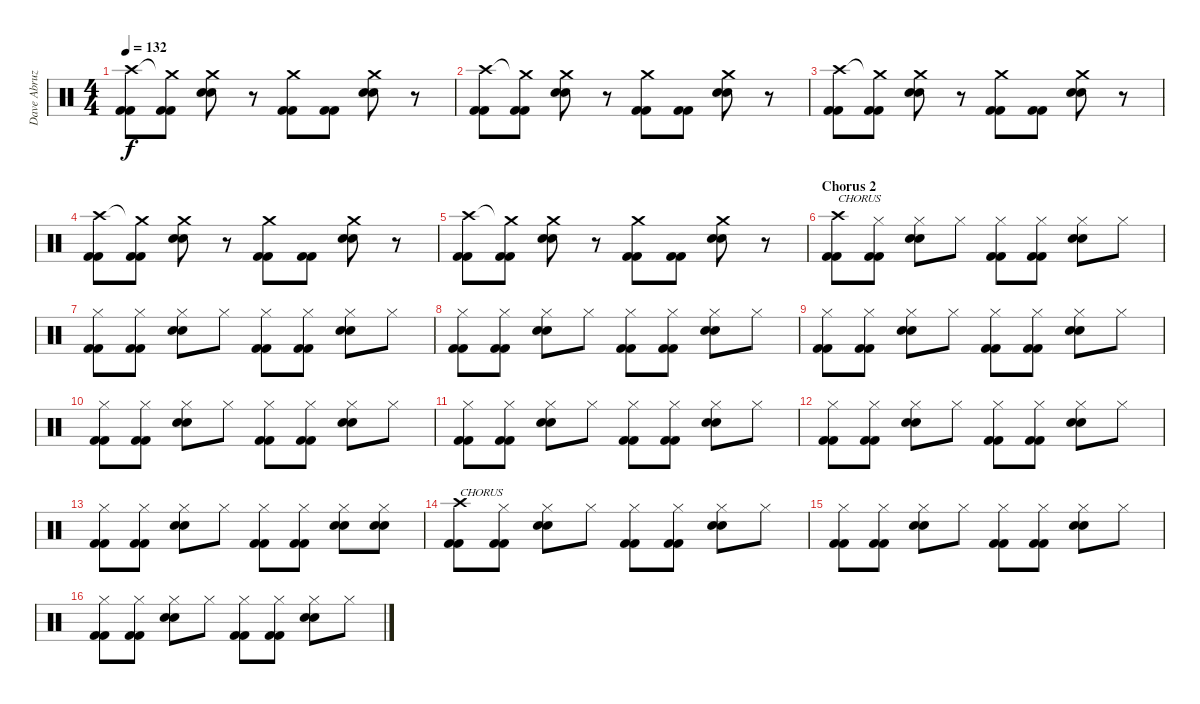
\track ("Dave Abruzzesse" "Dave Abruz") {instrument percussion}
\staff {score}
\articulation defaults
\ts (4 4)
\tempo 132
\clef neutral
\ks c
("Crash high (hit)" "Kick (hit) 2" "Kick (hit) 2").8{dy f} ("Crash medium (hit)"{t} "Kick (hit) 2" "Kick (hit) 2").8 ("Crash medium (hit)" "Snare (hit) 2" "Snare (hit) 2").8 r.8 ("Crash medium (hit)" "Kick (hit) 2" "Kick (hit) 2").8 ("Kick (hit) 2" "Kick (hit) 2").8 ("Crash medium (hit)" "Snare (hit) 2" "Snare (hit) 2").8 r.8 |
("Crash high (hit)" "Kick (hit) 2" "Kick (hit) 2").8 ("Crash medium (hit)"{t} "Kick (hit) 2" "Kick (hit) 2").8 ("Crash medium (hit)" "Snare (hit) 2" "Snare (hit) 2").8 r.8 ("Crash medium (hit)" "Kick (hit) 2" "Kick (hit) 2").8 ("Kick (hit) 2" "Kick (hit) 2").8 ("Crash medium (hit)" "Snare (hit) 2" "Snare (hit) 2").8 r.8 |
("Crash high (hit)" "Kick (hit) 2" "Kick (hit) 2").8 ("Crash medium (hit)"{t} "Kick (hit) 2" "Kick (hit) 2").8 ("Crash medium (hit)" "Snare (hit) 2" "Snare (hit) 2").8 r.8 ("Crash medium (hit)" "Kick (hit) 2" "Kick (hit) 2").8 ("Kick (hit) 2" "Kick (hit) 2").8 ("Crash medium (hit)" "Snare (hit) 2" "Snare (hit) 2").8 r.8 |
("Crash high (hit)" "Kick (hit) 2" "Kick (hit) 2").8 ("Crash medium (hit)"{t} "Kick (hit) 2" "Kick (hit) 2").8 ("Crash medium (hit)" "Snare (hit) 2" "Snare (hit) 2").8 r.8 ("Crash medium (hit)" "Kick (hit) 2" "Kick (hit) 2").8 ("Kick (hit) 2" "Kick (hit) 2").8 ("Crash medium (hit)" "Snare (hit) 2" "Snare (hit) 2").8 r.8 |
("Crash high (hit)" "Kick (hit) 2" "Kick (hit) 2").8 ("Crash medium (hit)"{t} "Kick (hit) 2" "Kick (hit) 2").8 ("Crash medium (hit)" "Snare (hit) 2" "Snare (hit) 2").8 r.8 ("Crash medium (hit)" "Kick (hit) 2" "Kick (hit) 2").8 ("Kick (hit) 2" "Kick (hit) 2").8 ("Crash medium (hit)" "Snare (hit) 2" "Snare (hit) 2").8 r.8 |
\section ("" "Chorus 2")
("Crash high (hit)" "Kick (hit) 2" "Kick (hit) 2").8{txt "CHORUS"} ("Hi-Hat (closed)" "Kick (hit) 2" "Kick (hit) 2").8 ("Hi-Hat (closed)" "Snare (hit) 2" "Snare (hit) 2").8 "Hi-Hat (closed)".8 ("Hi-Hat (closed)" "Kick (hit) 2" "Kick (hit) 2").8 ("Hi-Hat (closed)" "Kick (hit) 2" "Kick (hit) 2").8 ("Hi-Hat (closed)" "Snare (hit) 2" "Snare (hit) 2").8 "Hi-Hat (closed)".8 |
("Hi-Hat (closed)" "Kick (hit) 2" "Kick (hit) 2").8 ("Hi-Hat (closed)" "Kick (hit) 2" "Kick (hit) 2").8 ("Hi-Hat (closed)" "Snare (hit) 2" "Snare (hit) 2").8 "Hi-Hat (closed)".8 ("Hi-Hat (closed)" "Kick (hit) 2" "Kick (hit) 2").8 ("Hi-Hat (closed)" "Kick (hit) 2" "Kick (hit) 2").8 ("Hi-Hat (closed)" "Snare (hit) 2" "Snare (hit) 2").8 "Hi-Hat (closed)".8 |
("Hi-Hat (closed)" "Kick (hit) 2" "Kick (hit) 2").8 ("Hi-Hat (closed)" "Kick (hit) 2" "Kick (hit) 2").8 ("Hi-Hat (closed)" "Snare (hit) 2" "Snare (hit) 2").8 "Hi-Hat (closed)".8 ("Hi-Hat (closed)" "Kick (hit) 2" "Kick (hit) 2").8 ("Hi-Hat (closed)" "Kick (hit) 2" "Kick (hit) 2").8 ("Hi-Hat (closed)" "Snare (hit) 2" "Snare (hit) 2").8 "Hi-Hat (closed)".8 |
("Hi-Hat (closed)" "Kick (hit) 2" "Kick (hit) 2").8 ("Hi-Hat (closed)" "Kick (hit) 2" "Kick (hit) 2").8 ("Hi-Hat (closed)" "Snare (hit) 2" "Snare (hit) 2").8 "Hi-Hat (closed)".8 ("Hi-Hat (closed)" "Kick (hit) 2" "Kick (hit) 2").8 ("Hi-Hat (closed)" "Kick (hit) 2" "Kick (hit) 2").8 ("Hi-Hat (closed)" "Snare (hit) 2" "Snare (hit) 2").8 "Hi-Hat (closed)".8 |
("Hi-Hat (closed)" "Kick (hit) 2" "Kick (hit) 2").8 ("Hi-Hat (closed)" "Kick (hit) 2" "Kick (hit) 2").8 ("Hi-Hat (closed)" "Snare (hit) 2" "Snare (hit) 2").8 "Hi-Hat (closed)".8 ("Hi-Hat (closed)" "Kick (hit) 2" "Kick (hit) 2").8 ("Hi-Hat (closed)" "Kick (hit) 2" "Kick (hit) 2").8 ("Hi-Hat (closed)" "Snare (hit) 2" "Snare (hit) 2").8 "Hi-Hat (closed)".8 |
("Hi-Hat (closed)" "Kick (hit) 2" "Kick (hit) 2").8 ("Hi-Hat (closed)" "Kick (hit) 2" "Kick (hit) 2").8 ("Hi-Hat (closed)" "Snare (hit) 2" "Snare (hit) 2").8 "Hi-Hat (closed)".8 ("Hi-Hat (closed)" "Kick (hit) 2" "Kick (hit) 2").8 ("Hi-Hat (closed)" "Kick (hit) 2" "Kick (hit) 2").8 ("Hi-Hat (closed)" "Snare (hit) 2" "Snare (hit) 2").8 "Hi-Hat (closed)".8 |
("Hi-Hat (closed)" "Kick (hit) 2" "Kick (hit) 2").8 ("Hi-Hat (closed)" "Kick (hit) 2" "Kick (hit) 2").8 ("Hi-Hat (closed)" "Snare (hit) 2" "Snare (hit) 2").8 "Hi-Hat (closed)".8 ("Hi-Hat (closed)" "Kick (hit) 2" "Kick (hit) 2").8 ("Hi-Hat (closed)" "Kick (hit) 2" "Kick (hit) 2").8 ("Hi-Hat (closed)" "Snare (hit) 2" "Snare (hit) 2").8 "Hi-Hat (closed)".8 |
("Hi-Hat (closed)" "Kick (hit) 2" "Kick (hit) 2").8 ("Hi-Hat (closed)" "Kick (hit) 2" "Kick (hit) 2").8 ("Hi-Hat (closed)" "Snare (hit) 2" "Snare (hit) 2").8 "Hi-Hat (closed)".8 ("Hi-Hat (closed)" "Kick (hit) 2" "Kick (hit) 2").8 ("Hi-Hat (closed)" "Kick (hit) 2" "Kick (hit) 2").8 ("Hi-Hat (closed)" "Snare (hit) 2" "Snare (hit) 2").8 ("Hi-Hat (closed)" "Snare (hit) 2" "Snare (hit) 2").8 |
("Crash high (hit)" "Kick (hit) 2" "Kick (hit) 2").8{txt "CHORUS"} ("Hi-Hat (closed)" "Kick (hit) 2" "Kick (hit) 2").8 ("Hi-Hat (closed)" "Snare (hit) 2" "Snare (hit) 2").8 "Hi-Hat (closed)".8 ("Hi-Hat (closed)" "Kick (hit) 2" "Kick (hit) 2").8 ("Hi-Hat (closed)" "Kick (hit) 2" "Kick (hit) 2").8 ("Hi-Hat (closed)" "Snare (hit) 2" "Snare (hit) 2").8 "Hi-Hat (closed)".8 |
("Hi-Hat (closed)" "Kick (hit) 2" "Kick (hit) 2").8 ("Hi-Hat (closed)" "Kick (hit) 2" "Kick (hit) 2").8 ("Hi-Hat (closed)" "Snare (hit) 2" "Snare (hit) 2").8 "Hi-Hat (closed)".8 ("Hi-Hat (closed)" "Kick (hit) 2" "Kick (hit) 2").8 ("Hi-Hat (closed)" "Kick (hit) 2" "Kick (hit) 2").8 ("Hi-Hat (closed)" "Snare (hit) 2" "Snare (hit) 2").8 "Hi-Hat (closed)".8 |
("Hi-Hat (closed)" "Kick (hit) 2" "Kick (hit) 2").8 ("Hi-Hat (closed)" "Kick (hit) 2" "Kick (hit) 2").8 ("Hi-Hat (closed)" "Snare (hit) 2" "Snare (hit) 2").8 "Hi-Hat (closed)".8 ("Hi-Hat (closed)" "Kick (hit) 2" "Kick (hit) 2").8 ("Hi-Hat (closed)" "Kick (hit) 2" "Kick (hit) 2").8 ("Hi-Hat (closed)" "Snare (hit) 2" "Snare (hit) 2").8 "Hi-Hat (closed)".8
